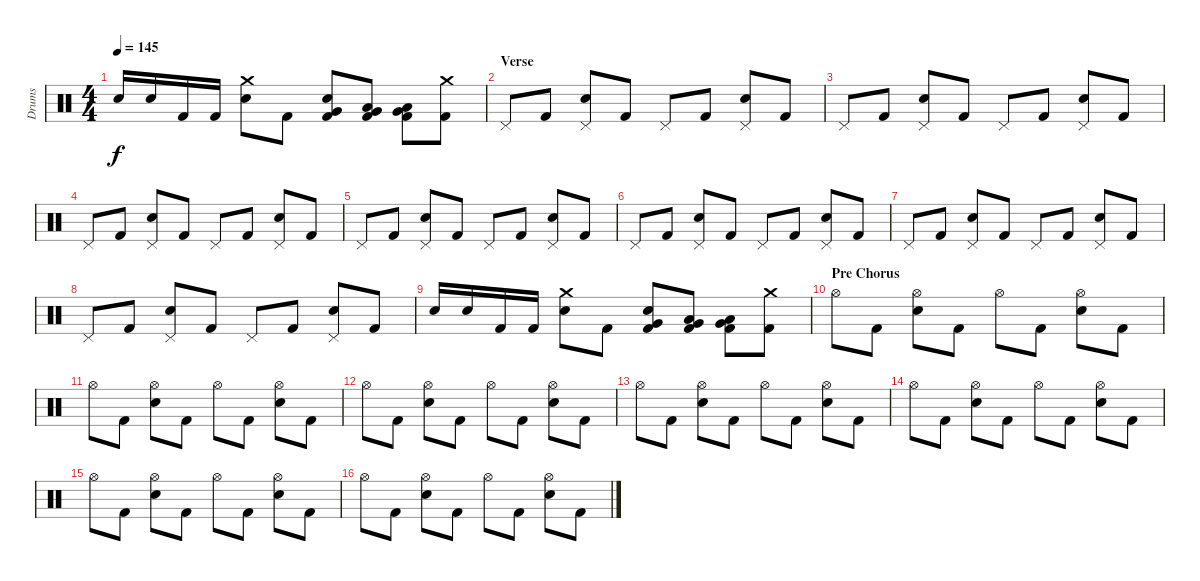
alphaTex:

\track ("Drums" "Drums") {instrument percussion}
\staff {score}
\articulation defaults
\ts (4 4)
\tempo 145
\clef neutral
\ks c "Electric Snare (hit)".16{dy f} "Electric Snare (hit)".16 "Kick (hit) 2".16 "Kick (hit) 2".16
("Crash medium (hit)" "Electric Snare (hit)").8 "Kick (hit) 2".8 ("Kick (hit) 2" "Electric Snare (hit)" "Very Low Tom (hit)").8 ("Kick (hit) 2" "Low Floor Tom (hit)" "Very Low Tom (hit)").8 ("Kick (hit) 2" "Low Floor Tom (hit)" "Very Low Tom (hit)").8 ("Crash medium (hit)" "Kick (hit) 2").8 |
\section ("" "Verse")
"Pedal Hi-Hat (hit)".8 "Kick (hit) 2".8 ("Pedal Hi-Hat (hit)" "Electric Snare (hit)").8 "Kick (hit) 2".8 "Pedal Hi-Hat (hit)".8 "Kick (hit) 2".8 ("Pedal Hi-Hat (hit)" "Electric Snare (hit)").8 "Kick (hit) 2".8 |
"Pedal Hi-Hat (hit)".8 "Kick (hit) 2".8 ("Pedal Hi-Hat (hit)" "Electric Snare (hit)").8 "Kick (hit) 2".8 "Pedal Hi-Hat (hit)".8 "Kick (hit) 2".8 ("Pedal Hi-Hat (hit)" "Electric Snare (hit)").8 "Kick (hit) 2".8 |
"Pedal Hi-Hat (hit)".8 "Kick (hit) 2".8 ("Pedal Hi-Hat (hit)" "Electric Snare (hit)").8 "Kick (hit) 2".8 "Pedal Hi-Hat (hit)".8 "Kick (hit) 2".8 ("Pedal Hi-Hat (hit)" "Electric Snare (hit)").8 "Kick (hit) 2".8 |
"Pedal Hi-Hat (hit)".8 "Kick (hit) 2".8 ("Pedal Hi-Hat (hit)" "Electric Snare (hit)").8 "Kick (hit) 2".8 "Pedal Hi-Hat (hit)".8 "Kick (hit) 2".8 ("Pedal Hi-Hat (hit)" "Electric Snare (hit)").8 "Kick (hit) 2".8 |
"Pedal Hi-Hat (hit)".8 "Kick (hit) 2".8 ("Pedal Hi-Hat (hit)" "Electric Snare (hit)").8 "Kick (hit) 2".8 "Pedal Hi-Hat (hit)".8 "Kick (hit) 2".8 ("Pedal Hi-Hat (hit)" "Electric Snare (hit)").8 "Kick (hit) 2".8 |
"Pedal Hi-Hat (hit)".8 "Kick (hit) 2".8 ("Pedal Hi-Hat (hit)" "Electric Snare (hit)").8 "Kick (hit) 2".8 "Pedal Hi-Hat (hit)".8 "Kick (hit) 2".8 ("Pedal Hi-Hat (hit)" "Electric Snare (hit)").8 "Kick (hit) 2".8 |
"Pedal Hi-Hat (hit)".8 "Kick (hit) 2".8 ("Pedal Hi-Hat (hit)" "Electric Snare (hit)").8 "Kick (hit) 2".8 "Pedal Hi-Hat (hit)".8 "Kick (hit) 2".8 ("Pedal Hi-Hat (hit)" "Electric Snare (hit)").8 "Kick (hit) 2".8 |
"Electric Snare (hit)".16 "Electric Snare (hit)".16 "Kick (hit) 2".16 "Kick (hit) 2".16 ("Crash medium (hit)" "Electric Snare (hit)").8 "Kick (hit) 2".8 ("Kick (hit) 2" "Electric Snare (hit)" "Very Low Tom (hit)").8 ("Kick (hit) 2" "Low Floor Tom (hit)" "Very Low Tom (hit)").8 ("Kick (hit) 2" "Low Floor Tom (hit)" "Very Low Tom (hit)").8 ("Crash medium (hit)" "Kick (hit) 2").8 |
\section ("" "Pre Chorus")
"Hi-Hat (open)".8 "Kick (hit) 2".8 ("Hi-Hat (open)" "Electric Snare (hit)").8 "Kick (hit) 2".8 "Hi-Hat (open)".8 "Kick (hit) 2".8 ("Hi-Hat (open)" "Electric Snare (hit)").8 "Kick (hit) 2".8 |
"Hi-Hat (open)".8 "Kick (hit) 2".8 ("Hi-Hat (open)" "Electric Snare (hit)").8 "Kick (hit) 2".8 "Hi-Hat (open)".8 "Kick (hit) 2".8 ("Hi-Hat (open)" "Electric Snare (hit)").8 "Kick (hit) 2".8 |
"Hi-Hat (open)".8 "Kick (hit) 2".8 ("Hi-Hat (open)" "Electric Snare (hit)").8 "Kick (hit) 2".8 "Hi-Hat (open)".8 "Kick (hit) 2".8 ("Hi-Hat (open)" "Electric Snare (hit)").8 "Kick (hit) 2".8 |
"Hi-Hat (open)".8 "Kick (hit) 2".8 ("Hi-Hat (open)" "Electric Snare (hit)").8 "Kick (hit) 2".8 "Hi-Hat (open)".8 "Kick (hit) 2".8 ("Hi-Hat (open)" "Electric Snare (hit)").8 "Kick (hit) 2".8 |
"Hi-Hat (open)".8 "Kick (hit) 2".8 ("Hi-Hat (open)" "Electric Snare (hit)").8 "Kick (hit) 2".8 "Hi-Hat (open)".8 "Kick (hit) 2".8 ("Hi-Hat (open)" "Electric Snare (hit)").8 "Kick (hit) 2".8 |
"Hi-Hat (open)".8 "Kick (hit) 2".8 ("Hi-Hat (open)" "Electric Snare (hit)").8 "Kick (hit) 2".8 "Hi-Hat (open)".8 "Kick (hit) 2".8 ("Hi-Hat (open)" "Electric Snare (hit)").8 "Kick (hit) 2".8 |
"Hi-Hat (open)".8 "Kick (hit) 2".8 ("Hi-Hat (open)" "Electric Snare (hit)").8 "Kick (hit) 2".8 "Hi-Hat (open)".8 "Kick (hit) 2".8 ("Hi-Hat (open)" "Electric Snare (hit)").8 "Kick (hit) 2".8
